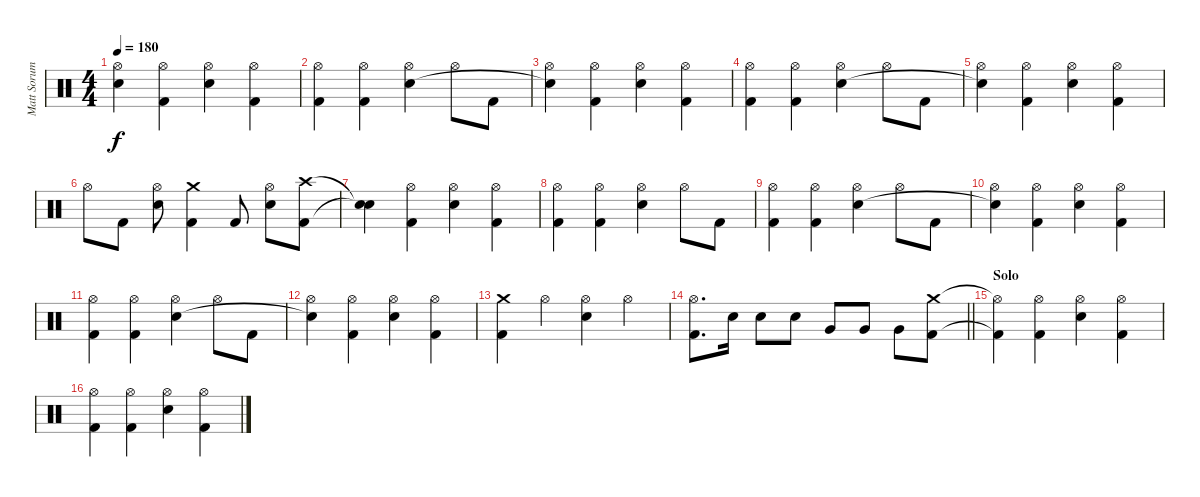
\track ("Matt Sorum" "Matt Sorum") {instrument percussion}
\staff {score}
\articulation defaults
\ts (4 4)
\tempo 180
\clef neutral
\ks c
("Hi-Hat (open)" "Snare (hit)"{t}).4{dy f} ("Hi-Hat (open)" "Kick (hit) 2").4 ("Hi-Hat (open)" "Electric Snare (hit)").4 ("Hi-Hat (open)" "Kick (hit) 2").4 |
("Hi-Hat (open)" "Kick (hit) 2").4 ("Hi-Hat (open)" "Kick (hit) 2").4 ("Hi-Hat (open)" "Electric Snare (hit)").4 "Hi-Hat (open)".8 "Kick (hit) 2".8 |
("Hi-Hat (open)" "Snare (hit)"{t}).4 ("Hi-Hat (open)" "Kick (hit) 2").4 ("Hi-Hat (open)" "Electric Snare (hit)").4 ("Hi-Hat (open)" "Kick (hit) 2").4 |
("Hi-Hat (open)" "Kick (hit) 2").4 ("Hi-Hat (open)" "Kick (hit) 2").4 ("Hi-Hat (open)" "Electric Snare (hit)").4 "Hi-Hat (open)".8 "Kick (hit) 2".8 |
("Hi-Hat (open)" "Snare (hit)"{t}).4 ("Hi-Hat (open)" "Kick (hit) 2").4 ("Hi-Hat (open)" "Electric Snare (hit)").4 ("Hi-Hat (open)" "Kick (hit) 2").4 |
"Hi-Hat (open)".8 "Kick (hit) 2".8 ("Hi-Hat (open)" "Electric Snare (hit)").8 ("Crash medium (hit)" "Kick (hit) 2").4 "Kick (hit) 2".8 ("Hi-Hat (open)" "Electric Snare (hit)").8 ("Crash high (hit)" "Kick (hit) 2").8 |
("Snare (hit)"{t} "Snare (hit)"{t}).4 ("Hi-Hat (open)" "Kick (hit) 2").4 ("Hi-Hat (open)" "Electric Snare (hit)").4 ("Hi-Hat (open)" "Kick (hit) 2").4 |
("Hi-Hat (open)" "Kick (hit) 2").4 ("Hi-Hat (open)" "Kick (hit) 2").4 ("Hi-Hat (open)" "Electric Snare (hit)").4 "Hi-Hat (open)".8 "Kick (hit) 2".8 |
("Hi-Hat (open)" "Kick (hit) 2").4 ("Hi-Hat (open)" "Kick (hit) 2").4 ("Hi-Hat (open)" "Electric Snare (hit)").4 "Hi-Hat (open)".8 "Kick (hit) 2".8 |
("Hi-Hat (open)" "Snare (hit)"{t}).4 ("Hi-Hat (open)" "Kick (hit) 2").4 ("Hi-Hat (open)" "Electric Snare (hit)").4 ("Hi-Hat (open)" "Kick (hit) 2").4 |
("Hi-Hat (open)" "Kick (hit) 2").4 ("Hi-Hat (open)" "Kick (hit) 2").4 ("Hi-Hat (open)" "Electric Snare (hit)").4 "Hi-Hat (open)".8 "Kick (hit) 2".8 |
("Hi-Hat (open)" "Snare (hit)"{t}).4 ("Hi-Hat (open)" "Kick (hit) 2").4 ("Hi-Hat (open)" "Electric Snare (hit)").4 ("Hi-Hat (open)" "Kick (hit) 2").4 |
("Crash medium (hit)" "Kick (hit) 2").4 "Hi-Hat (open)".4 ("Hi-Hat (open)" "Electric Snare (hit)").4 "Hi-Hat (open)".4 |
\barLineRight lightlight
("Hi-Hat (open)" "Kick (hit) 2").8{d} "Electric Snare (hit)".16 "Electric Snare (hit)".8 "Electric Snare (hit)".8 "Very Low Tom (hit)".8 "Very Low Tom (hit)".8 "Very Low Tom (hit)".8 ("Crash medium (hit)" "Kick (hit) 2").8 |
\section ("" "Solo")
("Hi-Hat (open)"{t} "Kick (hit) 2"{t}).4 ("Hi-Hat (open)" "Kick (hit) 2").4 ("Hi-Hat (open)" "Electric Snare (hit)").4 ("Hi-Hat (open)" "Kick (hit) 2").4 |
("Hi-Hat (open)" "Kick (hit) 2").4 ("Hi-Hat (open)" "Kick (hit) 2").4 ("Hi-Hat (open)" "Electric Snare (hit)").4 ("Hi-Hat (open)" "Kick (hit) 2").4
